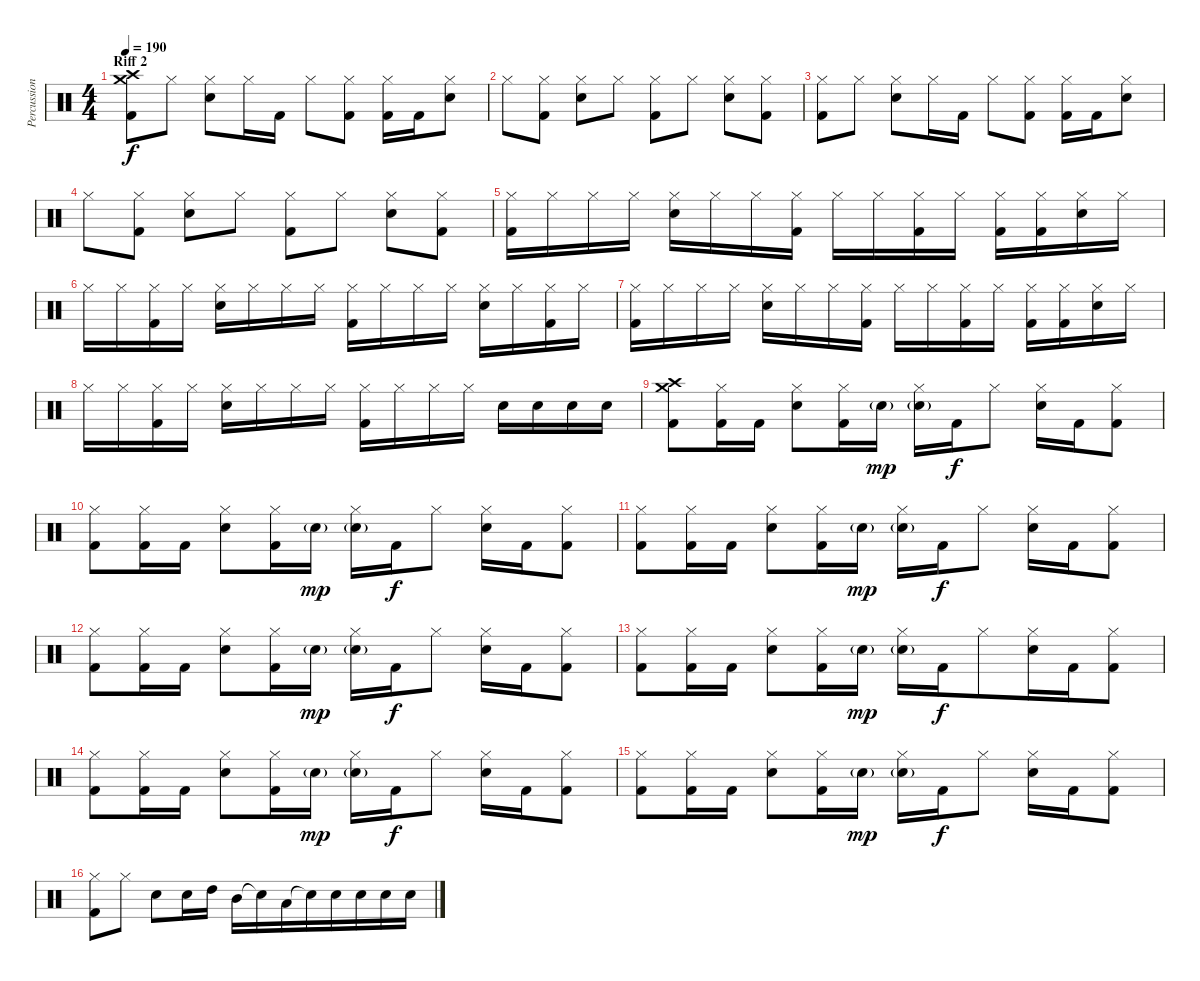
\track ("Percussion" "Percussion") {instrument percussion}
\staff {score}
\articulation defaults
\ts (4 4)
\section ("" "Riff 2")
\tempo 190
\clef neutral
\ks c
("Crash medium (hit)" "Crash high (hit)" "Kick (hit) 2").8{dy f} "Hi-Hat (closed)".8 ("Hi-Hat (closed)" "Electric Snare (hit)").8 "Hi-Hat (closed)".16 "Kick (hit) 2".16 "Hi-Hat (closed)".8 ("Hi-Hat (closed)" "Kick (hit) 2").8 ("Hi-Hat (closed)" "Kick (hit) 2").16 "Kick (hit) 2".16 ("Hi-Hat (closed)" "Electric Snare (hit)").8 |
"Hi-Hat (closed)".8 ("Hi-Hat (closed)" "Kick (hit) 2").8 ("Hi-Hat (closed)" "Electric Snare (hit)").8 "Hi-Hat (closed)".8 ("Hi-Hat (closed)" "Kick (hit) 2").8 "Hi-Hat (closed)".8 ("Hi-Hat (closed)" "Electric Snare (hit)").8 ("Hi-Hat (closed)" "Kick (hit) 2").8 |
("Hi-Hat (closed)" "Kick (hit) 2").8 "Hi-Hat (closed)".8 ("Hi-Hat (closed)" "Electric Snare (hit)").8 "Hi-Hat (closed)".16 "Kick (hit) 2".16 "Hi-Hat (closed)".8 ("Hi-Hat (closed)" "Kick (hit) 2").8 ("Hi-Hat (closed)" "Kick (hit) 2").16 "Kick (hit) 2".16 ("Hi-Hat (closed)" "Electric Snare (hit)").8 |
"Hi-Hat (closed)".8 ("Hi-Hat (closed)" "Kick (hit) 2").8 ("Hi-Hat (closed)" "Electric Snare (hit)").8 "Hi-Hat (closed)".8 ("Hi-Hat (closed)" "Kick (hit) 2").8 "Hi-Hat (closed)".8 ("Hi-Hat (closed)" "Electric Snare (hit)").8 ("Hi-Hat (closed)" "Kick (hit) 2").8 |
("Hi-Hat (closed)" "Kick (hit) 2").16 "Hi-Hat (closed)".16 "Hi-Hat (closed)".16 "Hi-Hat (closed)".16 ("Hi-Hat (closed)" "Electric Snare (hit)").16 "Hi-Hat (closed)".16 "Hi-Hat (closed)".16 ("Hi-Hat (closed)" "Kick (hit) 2").16 "Hi-Hat (closed)".16 "Hi-Hat (closed)".16 ("Hi-Hat (closed)" "Kick (hit) 2").16 "Hi-Hat (closed)".16 ("Hi-Hat (closed)" "Kick (hit) 2").16 ("Hi-Hat (closed)" "Kick (hit) 2").16 ("Hi-Hat (closed)" "Electric Snare (hit)").16 "Hi-Hat (closed)".16 |
"Hi-Hat (closed)".16 "Hi-Hat (closed)".16 ("Hi-Hat (closed)" "Kick (hit) 2").16 "Hi-Hat (closed)".16 ("Hi-Hat (closed)" "Electric Snare (hit)").16 "Hi-Hat (closed)".16 "Hi-Hat (closed)".16 "Hi-Hat (closed)".16 ("Hi-Hat (closed)" "Kick (hit) 2").16 "Hi-Hat (closed)".16 "Hi-Hat (closed)".16 "Hi-Hat (closed)".16 ("Hi-Hat (closed)" "Electric Snare (hit)").16 "Hi-Hat (closed)".16 ("Hi-Hat (closed)" "Kick (hit) 2").16 "Hi-Hat (closed)".16 |
("Hi-Hat (closed)" "Kick (hit) 2").16 "Hi-Hat (closed)".16 "Hi-Hat (closed)".16 "Hi-Hat (closed)".16 ("Hi-Hat (closed)" "Electric Snare (hit)").16 "Hi-Hat (closed)".16 "Hi-Hat (closed)".16 ("Hi-Hat (closed)" "Kick (hit) 2").16 "Hi-Hat (closed)".16 "Hi-Hat (closed)".16 ("Hi-Hat (closed)" "Kick (hit) 2").16 "Hi-Hat (closed)".16 ("Hi-Hat (closed)" "Kick (hit) 2").16 ("Hi-Hat (closed)" "Kick (hit) 2").16 ("Hi-Hat (closed)" "Electric Snare (hit)").16 "Hi-Hat (closed)".16 |
"Hi-Hat (closed)".16 "Hi-Hat (closed)".16 ("Hi-Hat (closed)" "Kick (hit) 2").16 "Hi-Hat (closed)".16 ("Hi-Hat (closed)" "Electric Snare (hit)").16 "Hi-Hat (closed)".16 "Hi-Hat (closed)".16 "Hi-Hat (closed)".16 ("Hi-Hat (closed)" "Kick (hit) 2").16 "Hi-Hat (closed)".16 "Hi-Hat (closed)".16 "Hi-Hat (closed)".16 "Electric Snare (hit)".16 "Electric Snare (hit)".16 "Electric Snare (hit)".16 "Electric Snare (hit)".16 |
("Crash medium (hit)" "Crash high (hit)" "Kick (hit) 2").8 ("Hi-Hat (closed)" "Kick (hit) 2").16 "Kick (hit) 2".16 ("Hi-Hat (closed)" "Electric Snare (hit)").8 ("Hi-Hat (closed)" "Kick (hit) 2").16 "Electric Snare (hit)"{g}.16{dy mp} ("Hi-Hat (closed)" "Electric Snare (hit)"{g}).16 "Kick (hit) 2".16{dy f} "Hi-Hat (closed)".8 ("Hi-Hat (closed)" "Electric Snare (hit)").16 "Kick (hit) 2".16 ("Hi-Hat (closed)" "Kick (hit) 2").8 |
("Hi-Hat (closed)" "Kick (hit) 2").8 ("Hi-Hat (closed)" "Kick (hit) 2").16{beam merge} "Kick (hit) 2".16 ("Hi-Hat (closed)" "Electric Snare (hit)").8 ("Hi-Hat (closed)" "Kick (hit) 2").16 "Electric Snare (hit)"{g}.16{dy mp} ("Hi-Hat (closed)" "Electric Snare (hit)"{g}).16 "Kick (hit) 2".16{dy f} "Hi-Hat (closed)".8 ("Hi-Hat (closed)" "Electric Snare (hit)").16 "Kick (hit) 2".16 ("Hi-Hat (closed)" "Kick (hit) 2").8 |
("Hi-Hat (closed)" "Kick (hit) 2").8{beam merge} ("Hi-Hat (closed)" "Kick (hit) 2").16{beam merge} "Kick (hit) 2".16 ("Hi-Hat (closed)" "Electric Snare (hit)").8 ("Hi-Hat (closed)" "Kick (hit) 2").16{beam merge} "Electric Snare (hit)"{g}.16{dy mp} ("Hi-Hat (closed)" "Electric Snare (hit)"{g}).16{beam merge} "Kick (hit) 2".16{dy f beam merge} "Hi-Hat (closed)".8 ("Hi-Hat (closed)" "Electric Snare (hit)").16 "Kick (hit) 2".16 ("Hi-Hat (closed)" "Kick (hit) 2").8 |
("Hi-Hat (closed)" "Kick (hit) 2").8{beam merge} ("Hi-Hat (closed)" "Kick (hit) 2").16 "Kick (hit) 2".16 ("Hi-Hat (closed)" "Electric Snare (hit)").8{beam merge} ("Hi-Hat (closed)" "Kick (hit) 2").16{beam merge} "Electric Snare (hit)"{g}.16{dy mp} ("Hi-Hat (closed)" "Electric Snare (hit)"{g}).16 "Kick (hit) 2".16{dy f} "Hi-Hat (closed)".8 ("Hi-Hat (closed)" "Electric Snare (hit)").16{beam merge} "Kick (hit) 2".16 ("Hi-Hat (closed)" "Kick (hit) 2").8 |
("Hi-Hat (closed)" "Kick (hit) 2").8{beam merge} ("Hi-Hat (closed)" "Kick (hit) 2").16 "Kick (hit) 2".16 ("Hi-Hat (closed)" "Electric Snare (hit)").8{beam merge} ("Hi-Hat (closed)" "Kick (hit) 2").16 "Electric Snare (hit)"{g}.16{dy mp} ("Hi-Hat (closed)" "Electric Snare (hit)"{g}).16{beam merge} "Kick (hit) 2".16{dy f} "Hi-Hat (closed)".8{beam merge} ("Hi-Hat (closed)" "Electric Snare (hit)").16 "Kick (hit) 2".16 ("Hi-Hat (closed)" "Kick (hit) 2").8 |
("Hi-Hat (closed)" "Kick (hit) 2").8 ("Hi-Hat (closed)" "Kick (hit) 2").16 "Kick (hit) 2".16 ("Hi-Hat (closed)" "Electric Snare (hit)").8{beam merge} ("Hi-Hat (closed)" "Kick (hit) 2").16 "Electric Snare (hit)"{g}.16{dy mp} ("Hi-Hat (closed)" "Electric Snare (hit)"{g}).16{beam merge} "Kick (hit) 2".16{dy f beam merge} "Hi-Hat (closed)".8 ("Hi-Hat (closed)" "Electric Snare (hit)").16 "Kick (hit) 2".16{beam merge} ("Hi-Hat (closed)" "Kick (hit) 2").8 |
("Hi-Hat (closed)" "Kick (hit) 2").8{beam merge} ("Hi-Hat (closed)" "Kick (hit) 2").16 "Kick (hit) 2".16 ("Hi-Hat (closed)" "Electric Snare (hit)").8{beam merge} ("Hi-Hat (closed)" "Kick (hit) 2").16{beam merge} "Electric Snare (hit)"{g}.16{dy mp} ("Hi-Hat (closed)" "Electric Snare (hit)"{g}).16{beam merge} "Kick (hit) 2".16{dy f beam merge} "Hi-Hat (closed)".8 ("Hi-Hat (closed)" "Electric Snare (hit)").16 "Kick (hit) 2".16{beam merge} ("Hi-Hat (closed)" "Kick (hit) 2").8 |
("Hi-Hat (closed)" "Kick (hit) 2").8{beam merge} "Hi-Hat (closed)".8 "Electric Snare (hit)".8{beam merge} "Electric Snare (hit)".16 "High Tom (hit)".16 "Mid Tom (hit)".16{beam merge} "Snare (hit)"{t}.16 "Low Tom (hit)".16{beam merge} "Snare (hit)"{t}.16{beam merge} "Electric Snare (hit)".16 "Electric Snare (hit)".16 "Electric Snare (hit)".16 "Electric Snare (hit)".16
